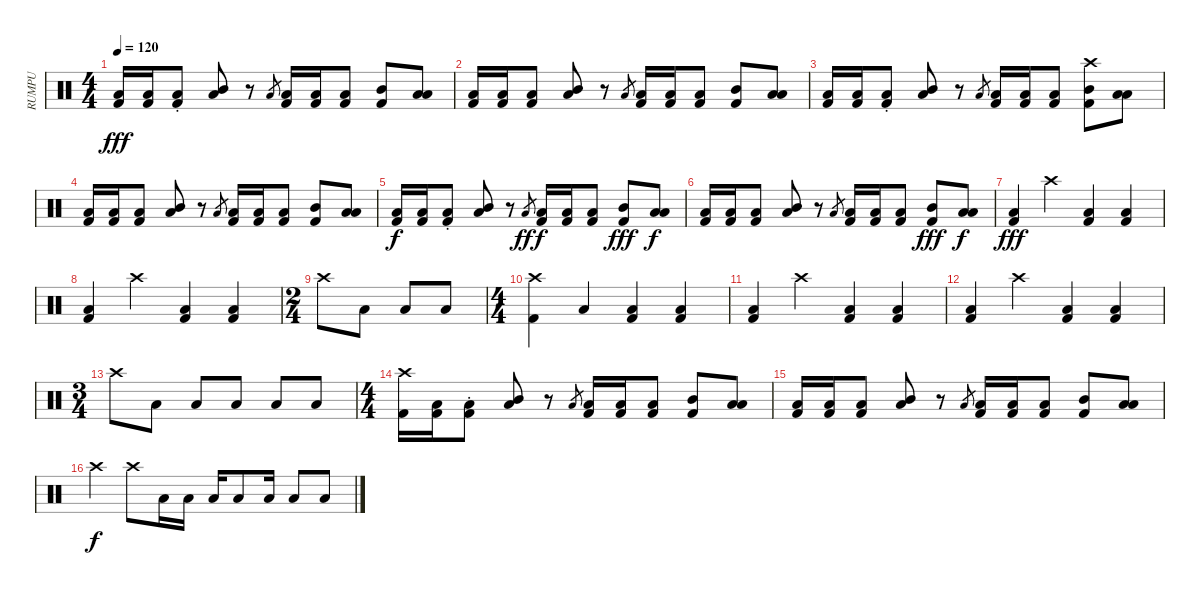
\track ("RUMPU" "RUMPU") {instrument percussion}
\staff {score}
\articulation defaults
\ts (4 4)
\tempo 120
\clef neutral
\ks c
("Low Floor Tom (hit)" "Kick (hit) 2").16{dy fff} ("Low Floor Tom (hit)" "Kick (hit) 2").16 ("Low Floor Tom (hit)" "Kick (hit) 2"{st}).8 ("Low Floor Tom (hit)" "Mid Tom (hit)").8 r.8 "Low Floor Tom (hit)".8{gr} ("Low Floor Tom (hit)" "Kick (hit) 2").16 ("Low Floor Tom (hit)" "Kick (hit) 2").16 ("Low Floor Tom (hit)" "Kick (hit) 2").8 ("Mid Tom (hit)" "Kick (hit) 2").8 ("Low Floor Tom (hit)" "Low Tom (hit)").8 |
("Low Floor Tom (hit)" "Kick (hit) 2").16 ("Low Floor Tom (hit)" "Kick (hit) 2").16 ("Low Floor Tom (hit)" "Kick (hit) 2").8 ("Low Floor Tom (hit)" "Mid Tom (hit)").8 r.8 "Low Floor Tom (hit)".8{gr} ("Low Floor Tom (hit)" "Kick (hit) 2").16 ("Low Floor Tom (hit)" "Kick (hit) 2").16 ("Low Floor Tom (hit)" "Kick (hit) 2").8 ("Mid Tom (hit)" "Kick (hit) 2").8 ("Low Floor Tom (hit)" "Low Tom (hit)").8 |
("Low Floor Tom (hit)" "Kick (hit) 2").16 ("Low Floor Tom (hit)" "Kick (hit) 2").16 ("Low Floor Tom (hit)" "Kick (hit) 2"{st}).8 ("Low Floor Tom (hit)" "Mid Tom (hit)").8 r.8 "Low Floor Tom (hit)".8{gr} ("Low Floor Tom (hit)" "Kick (hit) 2").16 ("Low Floor Tom (hit)" "Kick (hit) 2").16 ("Low Floor Tom (hit)" "Kick (hit) 2").8 ("Crash high (hit)" "Mid Tom (hit)" "Kick (hit) 2").8 ("Low Floor Tom (hit)" "Low Tom (hit)").8 |
("Low Floor Tom (hit)" "Kick (hit) 2").16 ("Low Floor Tom (hit)" "Kick (hit) 2").16 ("Low Floor Tom (hit)" "Kick (hit) 2").8 ("Low Floor Tom (hit)" "Mid Tom (hit)").8 r.8 "Low Floor Tom (hit)".8{gr} ("Low Floor Tom (hit)" "Kick (hit) 2").16 ("Low Floor Tom (hit)" "Kick (hit) 2").16 ("Low Floor Tom (hit)" "Kick (hit) 2").8 ("Mid Tom (hit)" "Kick (hit) 2").8 ("Low Floor Tom (hit)" "Low Tom (hit)").8 |
("Low Floor Tom (hit)" "Kick (hit) 2").16{dy f} ("Low Floor Tom (hit)" "Kick (hit) 2").16 ("Low Floor Tom (hit)" "Kick (hit) 2"{st}).8 ("Low Floor Tom (hit)" "Mid Tom (hit)").8 r.8 "Low Floor Tom (hit)".8{gr dy ff} ("Low Floor Tom (hit)" "Kick (hit) 2").16{dy f} ("Low Floor Tom (hit)" "Kick (hit) 2").16 ("Low Floor Tom (hit)" "Kick (hit) 2").8 ("Mid Tom (hit)" "Kick (hit) 2").8{dy fff} ("Low Floor Tom (hit)" "Low Tom (hit)").8{dy f} |
("Low Floor Tom (hit)" "Kick (hit) 2").16 ("Low Floor Tom (hit)" "Kick (hit) 2").16 ("Low Floor Tom (hit)" "Kick (hit) 2").8 ("Low Floor Tom (hit)" "Mid Tom (hit)").8 r.8 "Low Floor Tom (hit)".8{gr} ("Low Floor Tom (hit)" "Kick (hit) 2").16 ("Low Floor Tom (hit)" "Kick (hit) 2").16 ("Low Floor Tom (hit)" "Kick (hit) 2").8 ("Mid Tom (hit)" "Kick (hit) 2").8{dy fff} ("Low Floor Tom (hit)" "Low Tom (hit)").8{dy f} |
("Low Floor Tom (hit)" "Kick (hit) 2").4{dy fff} "Crash high (hit)".4 ("Low Floor Tom (hit)" "Kick (hit) 2").4 ("Low Floor Tom (hit)" "Kick (hit) 2").4 |
("Low Floor Tom (hit)" "Kick (hit) 2").4 "Crash high (hit)".4 ("Low Floor Tom (hit)" "Kick (hit) 2").4 ("Low Floor Tom (hit)" "Kick (hit) 2").4 |
\ts (2 4)
"Crash high (hit)".8 "Low Floor Tom (hit)".8 "Low Floor Tom (hit)".8 "Low Floor Tom (hit)".8 |
\ts (4 4)
("Crash high (hit)" "Kick (hit) 2").4 "Low Floor Tom (hit)".4 ("Low Floor Tom (hit)" "Kick (hit) 2").4 ("Low Floor Tom (hit)" "Kick (hit) 2").4 |
("Low Floor Tom (hit)" "Kick (hit) 2").4 "Crash high (hit)".4 ("Low Floor Tom (hit)" "Kick (hit) 2").4 ("Low Floor Tom (hit)" "Kick (hit) 2").4 |
("Low Floor Tom (hit)" "Kick (hit) 2").4 "Crash high (hit)".4 ("Low Floor Tom (hit)" "Kick (hit) 2").4 ("Low Floor Tom (hit)" "Kick (hit) 2").4 |
\ts (3 4)
"Crash high (hit)".8 "Low Floor Tom (hit)".8 "Low Floor Tom (hit)".8 "Low Floor Tom (hit)".8 "Low Floor Tom (hit)".8 "Low Floor Tom (hit)".8 |
\ts (4 4)
("Crash high (hit)" "Kick (hit) 2").16 ("Low Floor Tom (hit)" "Kick (hit) 2").16 ("Low Floor Tom (hit)" "Kick (hit) 2"{st}).8 ("Low Floor Tom (hit)" "Mid Tom (hit)").8 r.8 "Low Floor Tom (hit)".8{gr} ("Low Floor Tom (hit)" "Kick (hit) 2").16 ("Low Floor Tom (hit)" "Kick (hit) 2").16 ("Low Floor Tom (hit)" "Kick (hit) 2").8 ("Mid Tom (hit)" "Kick (hit) 2").8 ("Low Floor Tom (hit)" "Low Tom (hit)").8 |
("Low Floor Tom (hit)" "Kick (hit) 2").16 ("Low Floor Tom (hit)" "Kick (hit) 2").16 ("Low Floor Tom (hit)" "Kick (hit) 2").8 ("Low Floor Tom (hit)" "Mid Tom (hit)").8 r.8 "Low Floor Tom (hit)".8{gr} ("Low Floor Tom (hit)" "Kick (hit) 2").16 ("Low Floor Tom (hit)" "Kick (hit) 2").16 ("Low Floor Tom (hit)" "Kick (hit) 2").8 ("Mid Tom (hit)" "Kick (hit) 2").8 ("Low Floor Tom (hit)" "Low Tom (hit)").8 |
"Crash high (hit)".4{dy f} "Crash high (hit)".8 "Low Floor Tom (hit)".16 "Low Floor Tom (hit)".16 "Low Floor Tom (hit)".16 "Low Floor Tom (hit)".8 "Low Floor Tom (hit)".16 "Low Floor Tom (hit)".8 "Low Floor Tom (hit)".8
